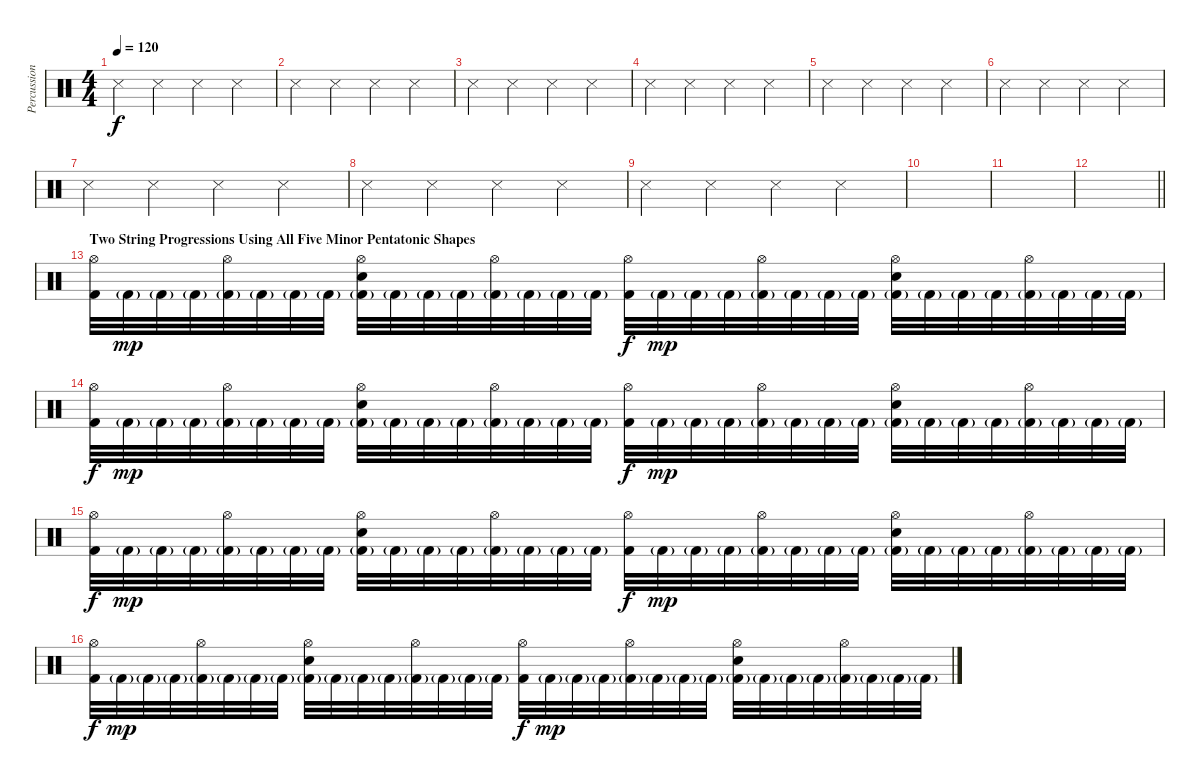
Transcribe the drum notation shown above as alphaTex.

\track ("Percussion" "Percussion") {instrument percussion}
\staff {score}
\articulation defaults
\ts (4 4)
\tempo 120
\clef neutral
\ks c "Metronome (hit)".4{dy f} "Metronome (hit)".4 "Metronome (hit)".4 "Metronome (hit)".4
|
"Metronome (hit)".4 "Metronome (hit)".4 "Metronome (hit)".4 "Metronome (hit)".4 |
"Metronome (hit)".4 "Metronome (hit)".4 "Metronome (hit)".4 "Metronome (hit)".4 |
"Metronome (hit)".4 "Metronome (hit)".4 "Metronome (hit)".4 "Metronome (hit)".4 |
"Metronome (hit)".4 "Metronome (hit)".4 "Metronome (hit)".4 "Metronome (hit)".4 |
"Metronome (hit)".4 "Metronome (hit)".4 "Metronome (hit)".4 "Metronome (hit)".4 |
"Metronome (hit)".4 "Metronome (hit)".4 "Metronome (hit)".4 "Metronome (hit)".4 |
"Metronome (hit)".4 "Metronome (hit)".4 "Metronome (hit)".4 "Metronome (hit)".4 |
"Metronome (hit)".4 "Metronome (hit)".4 "Metronome (hit)".4 "Metronome (hit)".4 |
|
|
\barLineRight lightlight
|
\section ("" "Two String Progressions Using All Five Minor Pentatonic Shapes")
("Hi-Hat (open)" "Kick (hit) 2").32 "Kick (hit) 2"{g}.32{dy mp} "Kick (hit) 2"{g}.32 "Kick (hit) 2"{g}.32 ("Hi-Hat (open)" "Kick (hit) 2"{g}).32 "Kick (hit) 2"{g}.32 "Kick (hit) 2"{g}.32 "Kick (hit) 2"{g}.32 ("Hi-Hat (open)" "Electric Snare (hit)" "Kick (hit) 2"{g}).32 "Kick (hit) 2"{g}.32 "Kick (hit) 2"{g}.32 "Kick (hit) 2"{g}.32 ("Hi-Hat (open)" "Kick (hit) 2"{g}).32 "Kick (hit) 2"{g}.32 "Kick (hit) 2"{g}.32 "Kick (hit) 2"{g}.32 ("Hi-Hat (open)" "Kick (hit) 2").32{dy f} "Kick (hit) 2"{g}.32{dy mp} "Kick (hit) 2"{g}.32 "Kick (hit) 2"{g}.32 ("Hi-Hat (open)" "Kick (hit) 2"{g}).32 "Kick (hit) 2"{g}.32 "Kick (hit) 2"{g}.32 "Kick (hit) 2"{g}.32 ("Hi-Hat (open)" "Electric Snare (hit)" "Kick (hit) 2"{g}).32 "Kick (hit) 2"{g}.32 "Kick (hit) 2"{g}.32 "Kick (hit) 2"{g}.32 ("Hi-Hat (open)" "Kick (hit) 2"{g}).32 "Kick (hit) 2"{g}.32 "Kick (hit) 2"{g}.32 "Kick (hit) 2"{g}.32 |
("Hi-Hat (open)" "Kick (hit) 2").32{dy f} "Kick (hit) 2"{g}.32{dy mp} "Kick (hit) 2"{g}.32 "Kick (hit) 2"{g}.32 ("Hi-Hat (open)" "Kick (hit) 2"{g}).32 "Kick (hit) 2"{g}.32 "Kick (hit) 2"{g}.32 "Kick (hit) 2"{g}.32 ("Hi-Hat (open)" "Electric Snare (hit)" "Kick (hit) 2"{g}).32 "Kick (hit) 2"{g}.32 "Kick (hit) 2"{g}.32 "Kick (hit) 2"{g}.32 ("Hi-Hat (open)" "Kick (hit) 2"{g}).32 "Kick (hit) 2"{g}.32 "Kick (hit) 2"{g}.32 "Kick (hit) 2"{g}.32 ("Hi-Hat (open)" "Kick (hit) 2").32{dy f} "Kick (hit) 2"{g}.32{dy mp} "Kick (hit) 2"{g}.32 "Kick (hit) 2"{g}.32 ("Hi-Hat (open)" "Kick (hit) 2"{g}).32 "Kick (hit) 2"{g}.32 "Kick (hit) 2"{g}.32 "Kick (hit) 2"{g}.32 ("Hi-Hat (open)" "Electric Snare (hit)" "Kick (hit) 2"{g}).32 "Kick (hit) 2"{g}.32 "Kick (hit) 2"{g}.32 "Kick (hit) 2"{g}.32 ("Hi-Hat (open)" "Kick (hit) 2"{g}).32 "Kick (hit) 2"{g}.32 "Kick (hit) 2"{g}.32 "Kick (hit) 2"{g}.32 |
("Hi-Hat (open)" "Kick (hit) 2").32{dy f} "Kick (hit) 2"{g}.32{dy mp} "Kick (hit) 2"{g}.32 "Kick (hit) 2"{g}.32 ("Hi-Hat (open)" "Kick (hit) 2"{g}).32 "Kick (hit) 2"{g}.32 "Kick (hit) 2"{g}.32 "Kick (hit) 2"{g}.32 ("Hi-Hat (open)" "Electric Snare (hit)" "Kick (hit) 2"{g}).32 "Kick (hit) 2"{g}.32 "Kick (hit) 2"{g}.32 "Kick (hit) 2"{g}.32 ("Hi-Hat (open)" "Kick (hit) 2"{g}).32 "Kick (hit) 2"{g}.32 "Kick (hit) 2"{g}.32 "Kick (hit) 2"{g}.32 ("Hi-Hat (open)" "Kick (hit) 2").32{dy f} "Kick (hit) 2"{g}.32{dy mp} "Kick (hit) 2"{g}.32 "Kick (hit) 2"{g}.32 ("Hi-Hat (open)" "Kick (hit) 2"{g}).32 "Kick (hit) 2"{g}.32 "Kick (hit) 2"{g}.32 "Kick (hit) 2"{g}.32 ("Hi-Hat (open)" "Electric Snare (hit)" "Kick (hit) 2"{g}).32 "Kick (hit) 2"{g}.32 "Kick (hit) 2"{g}.32 "Kick (hit) 2"{g}.32 ("Hi-Hat (open)" "Kick (hit) 2"{g}).32 "Kick (hit) 2"{g}.32 "Kick (hit) 2"{g}.32 "Kick (hit) 2"{g}.32 |
("Hi-Hat (open)" "Kick (hit) 2").32{dy f} "Kick (hit) 2"{g}.32{dy mp} "Kick (hit) 2"{g}.32 "Kick (hit) 2"{g}.32 ("Hi-Hat (open)" "Kick (hit) 2"{g}).32 "Kick (hit) 2"{g}.32 "Kick (hit) 2"{g}.32 "Kick (hit) 2"{g}.32 ("Hi-Hat (open)" "Electric Snare (hit)" "Kick (hit) 2"{g}).32 "Kick (hit) 2"{g}.32 "Kick (hit) 2"{g}.32 "Kick (hit) 2"{g}.32 ("Hi-Hat (open)" "Kick (hit) 2"{g}).32 "Kick (hit) 2"{g}.32 "Kick (hit) 2"{g}.32 "Kick (hit) 2"{g}.32 ("Hi-Hat (open)" "Kick (hit) 2").32{dy f} "Kick (hit) 2"{g}.32{dy mp} "Kick (hit) 2"{g}.32 "Kick (hit) 2"{g}.32 ("Hi-Hat (open)" "Kick (hit) 2"{g}).32 "Kick (hit) 2"{g}.32 "Kick (hit) 2"{g}.32 "Kick (hit) 2"{g}.32 ("Hi-Hat (open)" "Electric Snare (hit)" "Kick (hit) 2"{g}).32 "Kick (hit) 2"{g}.32 "Kick (hit) 2"{g}.32 "Kick (hit) 2"{g}.32 ("Hi-Hat (open)" "Kick (hit) 2"{g}).32 "Kick (hit) 2"{g}.32 "Kick (hit) 2"{g}.32 "Kick (hit) 2"{g}.32
